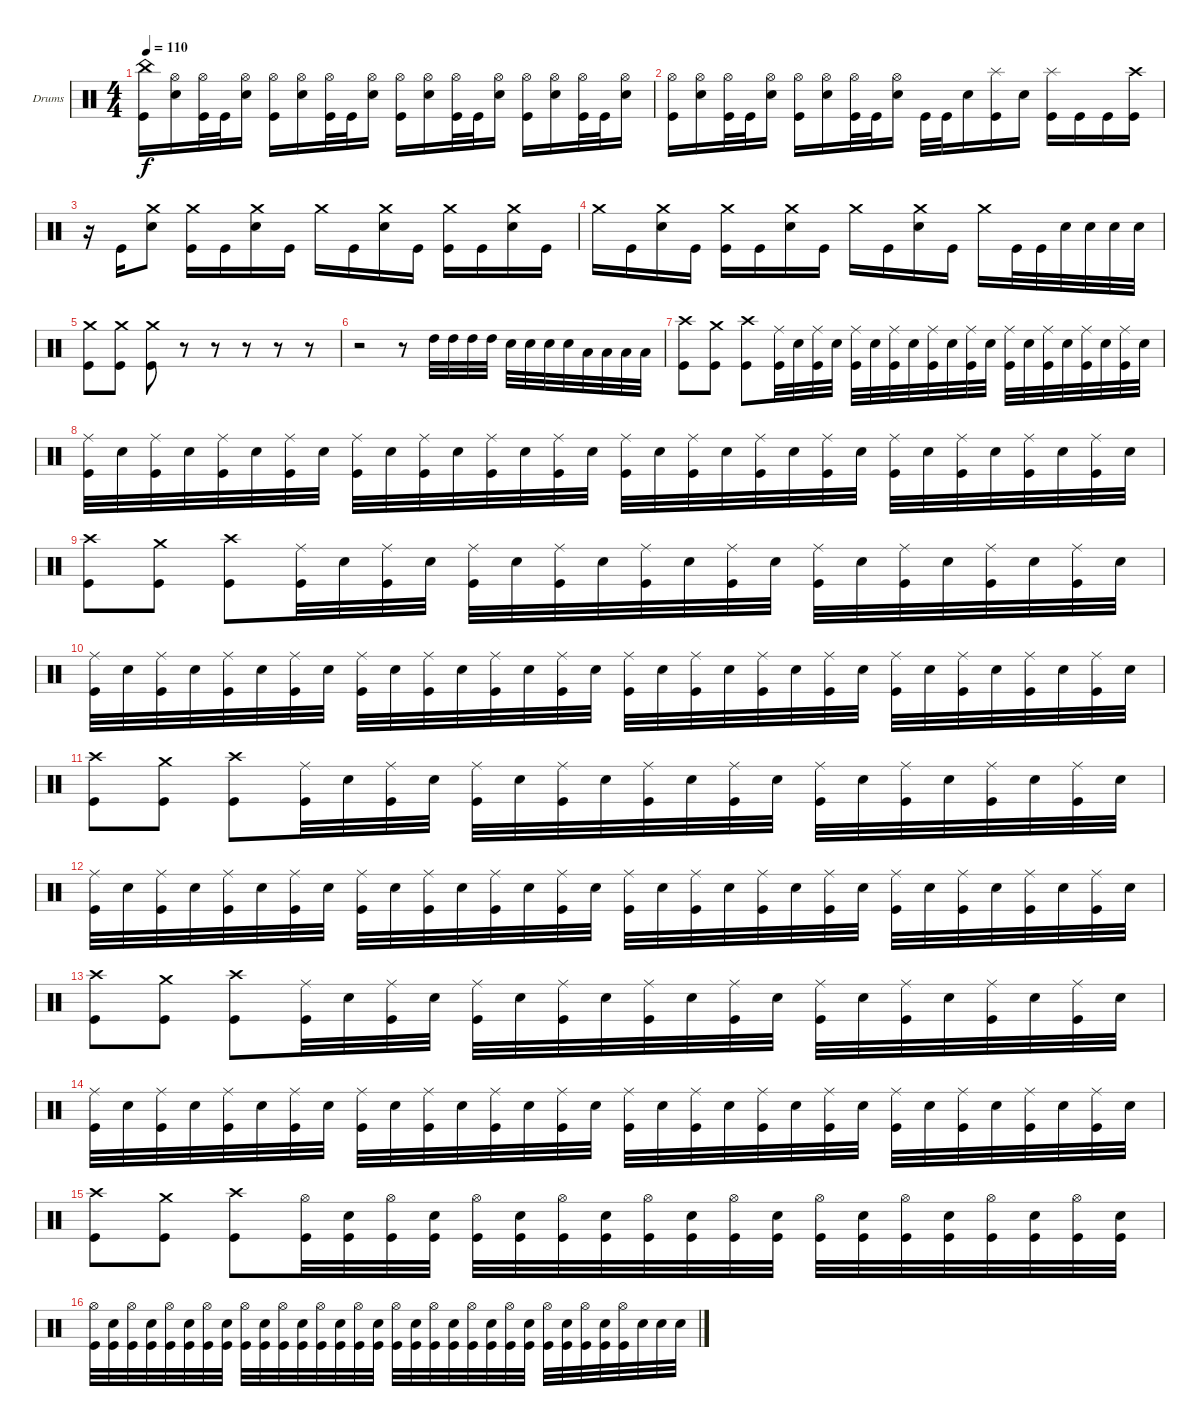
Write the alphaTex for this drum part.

\defaultSystemsLayout 4
\bracketExtendMode groupsimilarinstruments
\firstSystemTrackNameOrientation horizontal
\otherSystemsTrackNameOrientation horizontal
\track ("Drumkit" "Drums") {instrument percussion}
\staff {score}
\articulation defaults
\ts (4 4)
\tempo 110
\clef neutral
\scale
0.506066
\ks c
("China (hit)" "Kick (hit)").16{dy f} ("Hi-Hat (open)" "Snare (hit) 2").16 ("Hi-Hat (open)" "Kick (hit)").32 "Kick (hit)".32 ("Hi-Hat (open)" "Snare (hit) 2").16 ("Hi-Hat (open)" "Kick (hit)").16 ("Hi-Hat (open)" "Snare (hit) 2").16 ("Hi-Hat (open)" "Kick (hit)").32 "Kick (hit)".32 ("Hi-Hat (open)" "Snare (hit) 2").16 ("Hi-Hat (open)" "Kick (hit)").16 ("Hi-Hat (open)" "Snare (hit) 2").16 ("Hi-Hat (open)" "Kick (hit)").32 "Kick (hit)".32 ("Hi-Hat (open)" "Snare (hit) 2").16 ("Hi-Hat (open)" "Kick (hit)").16 ("Hi-Hat (open)" "Snare (hit) 2").16 ("Hi-Hat (open)" "Kick (hit)").32 "Kick (hit)".32 ("Hi-Hat (open)" "Snare (hit) 2").16 |
\scale
0.493934 ("Hi-Hat (open)" "Kick (hit)").16 ("Hi-Hat (open)" "Snare (hit) 2").16 ("Hi-Hat (open)" "Kick (hit)").32 "Kick (hit)".32 ("Hi-Hat (open)" "Snare (hit) 2").16 ("Hi-Hat (open)" "Kick (hit)").16 ("Hi-Hat (open)" "Snare (hit) 2").16 ("Hi-Hat (open)" "Kick (hit)").32 "Kick (hit)".32 ("Hi-Hat (open)" "Snare (hit) 2").16 "Kick (hit)".32 "Kick (hit)".32 "Snare (hit) 2".16 ("Splash (hit)" "Kick (hit)").16 "Snare (hit) 2".16 ("Splash (hit)" "Kick (hit)").16 "Kick (hit)".16 "Kick (hit)".16 ("Crash high (hit)" "Kick (hit)").16 |
\scale
0.456107 r.16 "Kick (hit)".16 ("Crash medium (hit)" "Snare (hit) 2").8 ("Crash medium (hit)" "Kick (hit)").16 "Kick (hit)".16 ("Crash medium (hit)" "Snare (hit) 2").16 "Kick (hit)".16 "Crash medium (hit)".16 "Kick (hit)".16 ("Crash medium (hit)" "Snare (hit) 2").16 "Kick (hit)".16 ("Crash medium (hit)" "Kick (hit)").16 "Kick (hit)".16 ("Crash medium (hit)" "Snare (hit) 2").16 "Kick (hit)".16 |
\scale
0.543893 "Crash medium (hit)".16 "Kick (hit)".16 ("Crash medium (hit)" "Snare (hit) 2").16 "Kick (hit)".16 ("Crash medium (hit)" "Kick (hit)").16 "Kick (hit)".16 ("Crash medium (hit)" "Snare (hit) 2").16 "Kick (hit)".16 "Crash medium (hit)".16 "Kick (hit)".16 ("Crash medium (hit)" "Snare (hit) 2").16 "Kick (hit)".16 "Crash medium (hit)".16 "Kick (hit)".32 "Kick (hit)".32 "Snare (hit) 2".32 "Snare (hit) 2".32 "Snare (hit) 2".32 "Snare (hit) 2".32 |
\scale
0.418848 ("Crash medium (hit)" "Kick (hit)").8 ("Crash medium (hit)" "Kick (hit)").8 ("Crash medium (hit)" "Kick (hit)").8 r.8 r.8 r.8 r.8 r.8 |
\scale
0.581152 r.2 r.8 "High Tom (hit)".32 "High Tom (hit)".32 "High Tom (hit)".32 "High Tom (hit)".32 "Snare (hit) 2".32 "Snare (hit) 2".32 "Snare (hit) 2".32 "Snare (hit) 2".32 "Low Tom (hit)".32 "Low Tom (hit)".32 "Low Tom (hit)".32 "Low Tom (hit)".32 |
\scale
0.451895 ("Crash high (hit)" "Kick (hit)").8 ("Crash medium (hit)" "Kick (hit)").8 ("Crash high (hit)" "Kick (hit)").8 ("Ride (middle)" "Kick (hit)").32 "Snare (hit) 2".32 ("Ride (middle)" "Kick (hit)").32 "Snare (hit) 2".32 ("Ride (middle)" "Kick (hit)").32 "Snare (hit) 2".32 ("Ride (middle)" "Kick (hit)").32 "Snare (hit) 2".32 ("Ride (middle)" "Kick (hit)").32 "Snare (hit) 2".32 ("Ride (middle)" "Kick (hit)").32 "Snare (hit) 2".32 ("Ride (middle)" "Kick (hit)").32 "Snare (hit) 2".32 ("Ride (middle)" "Kick (hit)").32 "Snare (hit) 2".32 ("Ride (middle)" "Kick (hit)").32 "Snare (hit) 2".32 ("Ride (middle)" "Kick (hit)").32 "Snare (hit) 2".32 |
\scale
0.548105 ("Ride (middle)" "Kick (hit)").32 "Snare (hit) 2".32 ("Ride (middle)" "Kick (hit)").32 "Snare (hit) 2".32 ("Ride (middle)" "Kick (hit)").32 "Snare (hit) 2".32 ("Ride (middle)" "Kick (hit)").32 "Snare (hit) 2".32 ("Ride (middle)" "Kick (hit)").32 "Snare (hit) 2".32 ("Ride (middle)" "Kick (hit)").32 "Snare (hit) 2".32 ("Ride (middle)" "Kick (hit)").32 "Snare (hit) 2".32 ("Ride (middle)" "Kick (hit)").32 "Snare (hit) 2".32 ("Ride (middle)" "Kick (hit)").32 "Snare (hit) 2".32 ("Ride (middle)" "Kick (hit)").32 "Snare (hit) 2".32 ("Ride (middle)" "Kick (hit)").32 "Snare (hit) 2".32 ("Ride (middle)" "Kick (hit)").32 "Snare (hit) 2".32 ("Ride (middle)" "Kick (hit)").32 "Snare (hit) 2".32 ("Ride (middle)" "Kick (hit)").32 "Snare (hit) 2".32 ("Ride (middle)" "Kick (hit)").32 "Snare (hit) 2".32 ("Ride (middle)" "Kick (hit)").32 "Snare (hit) 2".32 |
\scale
0.451895 ("Crash high (hit)" "Kick (hit)").8 ("Crash medium (hit)" "Kick (hit)").8 ("Crash high (hit)" "Kick (hit)").8 ("Ride (middle)" "Kick (hit)").32 "Snare (hit) 2".32 ("Ride (middle)" "Kick (hit)").32 "Snare (hit) 2".32 ("Ride (middle)" "Kick (hit)").32 "Snare (hit) 2".32 ("Ride (middle)" "Kick (hit)").32 "Snare (hit) 2".32 ("Ride (middle)" "Kick (hit)").32 "Snare (hit) 2".32 ("Ride (middle)" "Kick (hit)").32 "Snare (hit) 2".32 ("Ride (middle)" "Kick (hit)").32 "Snare (hit) 2".32 ("Ride (middle)" "Kick (hit)").32 "Snare (hit) 2".32 ("Ride (middle)" "Kick (hit)").32 "Snare (hit) 2".32 ("Ride (middle)" "Kick (hit)").32 "Snare (hit) 2".32 |
\scale
0.548105 ("Ride (middle)" "Kick (hit)").32 "Snare (hit) 2".32 ("Ride (middle)" "Kick (hit)").32 "Snare (hit) 2".32 ("Ride (middle)" "Kick (hit)").32 "Snare (hit) 2".32 ("Ride (middle)" "Kick (hit)").32 "Snare (hit) 2".32 ("Ride (middle)" "Kick (hit)").32 "Snare (hit) 2".32 ("Ride (middle)" "Kick (hit)").32 "Snare (hit) 2".32 ("Ride (middle)" "Kick (hit)").32 "Snare (hit) 2".32 ("Ride (middle)" "Kick (hit)").32 "Snare (hit) 2".32 ("Ride (middle)" "Kick (hit)").32 "Snare (hit) 2".32 ("Ride (middle)" "Kick (hit)").32 "Snare (hit) 2".32 ("Ride (middle)" "Kick (hit)").32 "Snare (hit) 2".32 ("Ride (middle)" "Kick (hit)").32 "Snare (hit) 2".32 ("Ride (middle)" "Kick (hit)").32 "Snare (hit) 2".32 ("Ride (middle)" "Kick (hit)").32 "Snare (hit) 2".32 ("Ride (middle)" "Kick (hit)").32 "Snare (hit) 2".32 ("Ride (middle)" "Kick (hit)").32 "Snare (hit) 2".32 |
\scale
0.451895 ("Crash high (hit)" "Kick (hit)").8 ("Crash medium (hit)" "Kick (hit)").8 ("Crash high (hit)" "Kick (hit)").8 ("Ride (middle)" "Kick (hit)").32 "Snare (hit) 2".32 ("Ride (middle)" "Kick (hit)").32 "Snare (hit) 2".32 ("Ride (middle)" "Kick (hit)").32 "Snare (hit) 2".32 ("Ride (middle)" "Kick (hit)").32 "Snare (hit) 2".32 ("Ride (middle)" "Kick (hit)").32 "Snare (hit) 2".32 ("Ride (middle)" "Kick (hit)").32 "Snare (hit) 2".32 ("Ride (middle)" "Kick (hit)").32 "Snare (hit) 2".32 ("Ride (middle)" "Kick (hit)").32 "Snare (hit) 2".32 ("Ride (middle)" "Kick (hit)").32 "Snare (hit) 2".32 ("Ride (middle)" "Kick (hit)").32 "Snare (hit) 2".32 |
\scale
0.548105 ("Ride (middle)" "Kick (hit)").32 "Snare (hit) 2".32 ("Ride (middle)" "Kick (hit)").32 "Snare (hit) 2".32 ("Ride (middle)" "Kick (hit)").32 "Snare (hit) 2".32 ("Ride (middle)" "Kick (hit)").32 "Snare (hit) 2".32 ("Ride (middle)" "Kick (hit)").32 "Snare (hit) 2".32 ("Ride (middle)" "Kick (hit)").32 "Snare (hit) 2".32 ("Ride (middle)" "Kick (hit)").32 "Snare (hit) 2".32 ("Ride (middle)" "Kick (hit)").32 "Snare (hit) 2".32 ("Ride (middle)" "Kick (hit)").32 "Snare (hit) 2".32 ("Ride (middle)" "Kick (hit)").32 "Snare (hit) 2".32 ("Ride (middle)" "Kick (hit)").32 "Snare (hit) 2".32 ("Ride (middle)" "Kick (hit)").32 "Snare (hit) 2".32 ("Ride (middle)" "Kick (hit)").32 "Snare (hit) 2".32 ("Ride (middle)" "Kick (hit)").32 "Snare (hit) 2".32 ("Ride (middle)" "Kick (hit)").32 "Snare (hit) 2".32 ("Ride (middle)" "Kick (hit)").32 "Snare (hit) 2".32 |
\scale
0.451895 ("Crash high (hit)" "Kick (hit)").8 ("Crash medium (hit)" "Kick (hit)").8 ("Crash high (hit)" "Kick (hit)").8 ("Ride (middle)" "Kick (hit)").32 "Snare (hit) 2".32 ("Ride (middle)" "Kick (hit)").32 "Snare (hit) 2".32 ("Ride (middle)" "Kick (hit)").32 "Snare (hit) 2".32 ("Ride (middle)" "Kick (hit)").32 "Snare (hit) 2".32 ("Ride (middle)" "Kick (hit)").32 "Snare (hit) 2".32 ("Ride (middle)" "Kick (hit)").32 "Snare (hit) 2".32 ("Ride (middle)" "Kick (hit)").32 "Snare (hit) 2".32 ("Ride (middle)" "Kick (hit)").32 "Snare (hit) 2".32 ("Ride (middle)" "Kick (hit)").32 "Snare (hit) 2".32 ("Ride (middle)" "Kick (hit)").32 "Snare (hit) 2".32 |
\scale
0.548105 ("Ride (middle)" "Kick (hit)").32 "Snare (hit) 2".32 ("Ride (middle)" "Kick (hit)").32 "Snare (hit) 2".32 ("Ride (middle)" "Kick (hit)").32 "Snare (hit) 2".32 ("Ride (middle)" "Kick (hit)").32 "Snare (hit) 2".32 ("Ride (middle)" "Kick (hit)").32 "Snare (hit) 2".32 ("Ride (middle)" "Kick (hit)").32 "Snare (hit) 2".32 ("Ride (middle)" "Kick (hit)").32 "Snare (hit) 2".32 ("Ride (middle)" "Kick (hit)").32 "Snare (hit) 2".32 ("Ride (middle)" "Kick (hit)").32 "Snare (hit) 2".32 ("Ride (middle)" "Kick (hit)").32 "Snare (hit) 2".32 ("Ride (middle)" "Kick (hit)").32 "Snare (hit) 2".32 ("Ride (middle)" "Kick (hit)").32 "Snare (hit) 2".32 ("Ride (middle)" "Kick (hit)").32 "Snare (hit) 2".32 ("Ride (middle)" "Kick (hit)").32 "Snare (hit) 2".32 ("Ride (middle)" "Kick (hit)").32 "Snare (hit) 2".32 ("Ride (middle)" "Kick (hit)").32 "Snare (hit) 2".32 |
\scale
0.451895 ("Crash high (hit)" "Kick (hit)").8 ("Crash medium (hit)" "Kick (hit)").8 ("Crash high (hit)" "Kick (hit)").8 ("Hi-Hat (open)" "Kick (hit)").32 ("Snare (hit) 2" "Kick (hit)").32 ("Hi-Hat (open)" "Kick (hit)").32 ("Snare (hit) 2" "Kick (hit)").32 ("Hi-Hat (open)" "Kick (hit)").32 ("Snare (hit) 2" "Kick (hit)").32 ("Hi-Hat (open)" "Kick (hit)").32 ("Snare (hit) 2" "Kick (hit)").32 ("Hi-Hat (open)" "Kick (hit)").32 ("Snare (hit) 2" "Kick (hit)").32 ("Hi-Hat (open)" "Kick (hit)").32 ("Snare (hit) 2" "Kick (hit)").32 ("Hi-Hat (open)" "Kick (hit)").32 ("Snare (hit) 2" "Kick (hit)").32 ("Hi-Hat (open)" "Kick (hit)").32 ("Snare (hit) 2" "Kick (hit)").32 ("Hi-Hat (open)" "Kick (hit)").32 ("Snare (hit) 2" "Kick (hit)").32 ("Hi-Hat (open)" "Kick (hit)").32 ("Snare (hit) 2" "Kick (hit)").32 |
\scale
0.548105 ("Hi-Hat (open)" "Kick (hit)").32 ("Snare (hit) 2" "Kick (hit)").32 ("Hi-Hat (open)" "Kick (hit)").32 ("Snare (hit) 2" "Kick (hit)").32 ("Hi-Hat (open)" "Kick (hit)").32 ("Snare (hit) 2" "Kick (hit)").32 ("Hi-Hat (open)" "Kick (hit)").32 ("Snare (hit) 2" "Kick (hit)").32 ("Hi-Hat (open)" "Kick (hit)").32 ("Snare (hit) 2" "Kick (hit)").32 ("Hi-Hat (open)" "Kick (hit)").32 ("Snare (hit) 2" "Kick (hit)").32 ("Hi-Hat (open)" "Kick (hit)").32 ("Snare (hit) 2" "Kick (hit)").32 ("Hi-Hat (open)" "Kick (hit)").32 ("Snare (hit) 2" "Kick (hit)").32 ("Hi-Hat (open)" "Kick (hit)").32 ("Snare (hit) 2" "Kick (hit)").32 ("Hi-Hat (open)" "Kick (hit)").32 ("Snare (hit) 2" "Kick (hit)").32 ("Hi-Hat (open)" "Kick (hit)").32 ("Snare (hit) 2" "Kick (hit)").32 ("Hi-Hat (open)" "Kick (hit)").32 ("Snare (hit) 2" "Kick (hit)").32 ("Hi-Hat (open)" "Kick (hit)").32 ("Snare (hit) 2" "Kick (hit)").32 ("Hi-Hat (open)" "Kick (hit)").32 ("Snare (hit) 2" "Kick (hit)").32 ("Hi-Hat (open)" "Kick (hit)").32 "Snare (hit) 2".32 "Snare (hit) 2".32 "Snare (hit) 2".32
